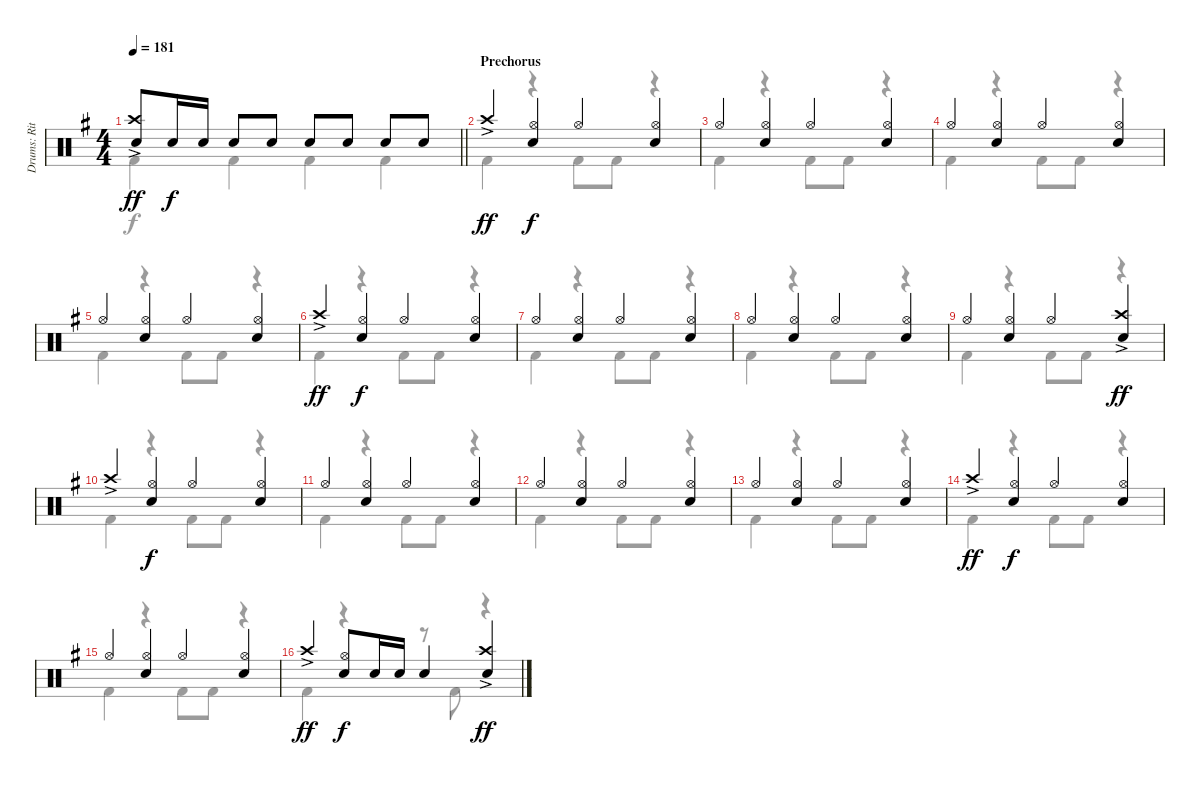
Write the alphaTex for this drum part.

\track ("Drums: Ritsu Tianaka" "Drums: Rit") {instrument percussion}
\staff {score}
\articulation defaults
\voice
\ts (4 4)
\tempo 181
\clef neutral
\barLineRight lightlight
\ks g
("Crash high (hit)"{ac} "Snare (hit) 2").8{dy ff} "Snare (hit) 2".16{dy f} "Snare (hit) 2".16 "Snare (hit) 2".8 "Snare (hit) 2".8 "Snare (hit) 2".8 "Snare (hit) 2".8 "Snare (hit) 2".8 "Snare (hit) 2".8 |
\section ("" "Prechorus")
"Crash high (hit)"{ac}.4{dy ff} ("Hi-Hat (open)" "Snare (hit) 2").4{dy f} "Hi-Hat (open)".4 ("Hi-Hat (open)" "Snare (hit) 2").4 |
"Hi-Hat (open)".4 ("Hi-Hat (open)" "Snare (hit) 2").4 "Hi-Hat (open)".4 ("Hi-Hat (open)" "Snare (hit) 2").4 |
"Hi-Hat (open)".4 ("Hi-Hat (open)" "Snare (hit) 2").4 "Hi-Hat (open)".4 ("Hi-Hat (open)" "Snare (hit) 2").4 |
"Hi-Hat (open)".4 ("Hi-Hat (open)" "Snare (hit) 2").4 "Hi-Hat (open)".4 ("Hi-Hat (open)" "Snare (hit) 2").4 |
"Crash high (hit)"{ac}.4{dy ff} ("Hi-Hat (open)" "Snare (hit) 2").4{dy f} "Hi-Hat (open)".4 ("Hi-Hat (open)" "Snare (hit) 2").4 |
"Hi-Hat (open)".4 ("Hi-Hat (open)" "Snare (hit) 2").4 "Hi-Hat (open)".4 ("Hi-Hat (open)" "Snare (hit) 2").4 |
"Hi-Hat (open)".4 ("Hi-Hat (open)" "Snare (hit) 2").4 "Hi-Hat (open)".4 ("Hi-Hat (open)" "Snare (hit) 2").4 |
"Hi-Hat (open)".4 ("Hi-Hat (open)" "Snare (hit) 2").4 "Hi-Hat (open)".4 ("Crash high (hit)"{ac} "Snare (hit) 2").4{dy ff} |
"Crash high (hit)"{ac}.4 ("Hi-Hat (open)" "Snare (hit) 2").4{dy f} "Hi-Hat (open)".4 ("Hi-Hat (open)" "Snare (hit) 2").4 |
"Hi-Hat (open)".4 ("Hi-Hat (open)" "Snare (hit) 2").4 "Hi-Hat (open)".4 ("Hi-Hat (open)" "Snare (hit) 2").4 |
"Hi-Hat (open)".4 ("Hi-Hat (open)" "Snare (hit) 2").4 "Hi-Hat (open)".4 ("Hi-Hat (open)" "Snare (hit) 2").4 |
"Hi-Hat (open)".4 ("Hi-Hat (open)" "Snare (hit) 2").4 "Hi-Hat (open)".4 ("Hi-Hat (open)" "Snare (hit) 2").4 |
"Crash high (hit)"{ac}.4{dy ff} ("Hi-Hat (open)" "Snare (hit) 2").4{dy f} "Hi-Hat (open)".4 ("Hi-Hat (open)" "Snare (hit) 2").4 |
"Hi-Hat (open)".4 ("Hi-Hat (open)" "Snare (hit) 2").4 "Hi-Hat (open)".4 ("Hi-Hat (open)" "Snare (hit) 2").4 |
"Crash high (hit)"{ac}.4{dy ff} ("Hi-Hat (open)" "Snare (hit) 2").8{dy f} "Snare (hit) 2".16 "Snare (hit) 2".16 "Snare (hit) 2".4 ("Crash high (hit)"{ac} "Snare (hit) 2").4{dy ff}
\voice
\clef neutral
\ottava regular
\simile none
\barLineRight lightlight
\ks g "Kick (hit) 2".4{dy f} "Kick (hit) 2".4 "Kick (hit) 2".4 "Kick (hit) 2".4
|
"Kick (hit) 2".4 r.4 "Kick (hit) 2".8 "Kick (hit) 2".8 r.4 |
"Kick (hit) 2".4 r.4 "Kick (hit) 2".8 "Kick (hit) 2".8 r.4 |
"Kick (hit) 2".4 r.4 "Kick (hit) 2".8 "Kick (hit) 2".8 r.4 |
"Kick (hit) 2".4 r.4 "Kick (hit) 2".8 "Kick (hit) 2".8 r.4 |
"Kick (hit) 2".4 r.4 "Kick (hit) 2".8 "Kick (hit) 2".8 r.4 |
"Kick (hit) 2".4 r.4 "Kick (hit) 2".8 "Kick (hit) 2".8 r.4 |
"Kick (hit) 2".4 r.4 "Kick (hit) 2".8 "Kick (hit) 2".8 r.4 |
"Kick (hit) 2".4 r.4 "Kick (hit) 2".8 "Kick (hit) 2".8 r.4 |
"Kick (hit) 2".4 r.4 "Kick (hit) 2".8 "Kick (hit) 2".8 r.4 |
"Kick (hit) 2".4 r.4 "Kick (hit) 2".8 "Kick (hit) 2".8 r.4 |
"Kick (hit) 2".4 r.4 "Kick (hit) 2".8 "Kick (hit) 2".8 r.4 |
"Kick (hit) 2".4 r.4 "Kick (hit) 2".8 "Kick (hit) 2".8 r.4 |
"Kick (hit) 2".4 r.4 "Kick (hit) 2".8 "Kick (hit) 2".8 r.4 |
"Kick (hit) 2".4 r.4 "Kick (hit) 2".8 "Kick (hit) 2".8 r.4 |
"Kick (hit) 2".4 r.4 r.8 "Kick (hit) 2".8 r.4
